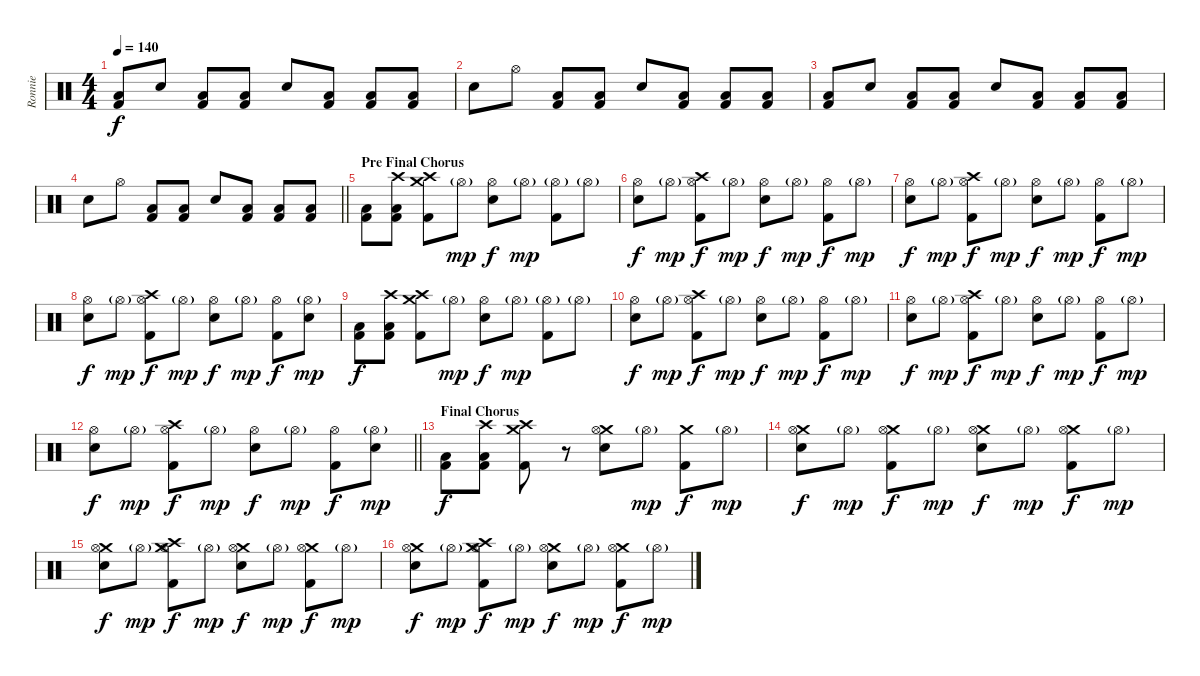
\track ("Ronnie" "Ronnie") {instrument percussion}
\staff {score}
\articulation defaults
\ts (4 4)
\tempo 140
\clef neutral
\ks c
("Low Tom (hit)" "Kick (hit) 2").8{dy f} "Electric Snare (hit)".8 ("Low Tom (hit)" "Kick (hit) 2").8 ("Low Tom (hit)" "Kick (hit) 2").8 "Electric Snare (hit)".8 ("Low Tom (hit)" "Kick (hit) 2").8 ("Low Tom (hit)" "Kick (hit) 2").8 ("Low Tom (hit)" "Kick (hit) 2").8 |
"Electric Snare (hit)".8 "Hi-Hat (open)".8 ("Low Tom (hit)" "Kick (hit) 2").8 ("Low Tom (hit)" "Kick (hit) 2").8 "Electric Snare (hit)".8 ("Low Tom (hit)" "Kick (hit) 2").8 ("Low Tom (hit)" "Kick (hit) 2").8 ("Low Tom (hit)" "Kick (hit) 2").8 |
("Low Tom (hit)" "Kick (hit) 2").8 "Electric Snare (hit)".8 ("Low Tom (hit)" "Kick (hit) 2").8 ("Low Tom (hit)" "Kick (hit) 2").8 "Electric Snare (hit)".8 ("Low Tom (hit)" "Kick (hit) 2").8 ("Low Tom (hit)" "Kick (hit) 2").8 ("Low Tom (hit)" "Kick (hit) 2").8 |
\barLineRight lightlight "Electric Snare (hit)".8 "Hi-Hat (open)".8
("Low Tom (hit)" "Kick (hit) 2").8 ("Low Tom (hit)" "Kick (hit) 2").8 "Electric Snare (hit)".8 ("Low Tom (hit)" "Kick (hit) 2").8 ("Low Tom (hit)" "Kick (hit) 2").8 ("Low Tom (hit)" "Kick (hit) 2").8 |
\section ("" "Pre Final Chorus")
("Low Tom (hit)" "Kick (hit) 2").8 ("Crash high (hit)" "Low Tom (hit)" "Kick (hit) 2").8 ("Crash high (hit)" "Crash medium (hit)" "Kick (hit) 2").8 "Hi-Hat (open)"{g}.8{dy mp} ("Hi-Hat (open)" "Electric Snare (hit)").8{dy f} "Hi-Hat (open)"{g}.8{dy mp} ("Hi-Hat (open)"{g} "Kick (hit) 2").8 "Hi-Hat (open)"{g}.8 |
("Hi-Hat (open)" "Electric Snare (hit)").8{dy f} "Hi-Hat (open)"{g}.8{dy mp} ("Crash high (hit)" "Hi-Hat (open)" "Kick (hit) 2").8{dy f} "Hi-Hat (open)"{g}.8{dy mp} ("Hi-Hat (open)" "Electric Snare (hit)").8{dy f} "Hi-Hat (open)"{g}.8{dy mp} ("Hi-Hat (open)" "Kick (hit) 2").8{dy f} "Hi-Hat (open)"{g}.8{dy mp} |
("Hi-Hat (open)" "Electric Snare (hit)").8{dy f} "Hi-Hat (open)"{g}.8{dy mp} ("Crash high (hit)" "Hi-Hat (open)" "Kick (hit) 2").8{dy f} "Hi-Hat (open)"{g}.8{dy mp} ("Hi-Hat (open)" "Electric Snare (hit)").8{dy f} "Hi-Hat (open)"{g}.8{dy mp} ("Hi-Hat (open)" "Kick (hit) 2").8{dy f} "Hi-Hat (open)"{g}.8{dy mp} |
("Hi-Hat (open)" "Electric Snare (hit)").8{dy f} "Hi-Hat (open)"{g}.8{dy mp} ("Crash high (hit)" "Hi-Hat (open)" "Kick (hit) 2").8{dy f} "Hi-Hat (open)"{g}.8{dy mp} ("Hi-Hat (open)" "Electric Snare (hit)").8{dy f} "Hi-Hat (open)"{g}.8{dy mp} ("Hi-Hat (open)" "Kick (hit) 2").8{dy f} ("Hi-Hat (open)"{g} "Electric Snare (hit)").8{dy mp} |
("Low Tom (hit)" "Kick (hit) 2").8{dy f} ("Crash high (hit)" "Low Tom (hit)" "Kick (hit) 2").8 ("Crash high (hit)" "Crash medium (hit)" "Kick (hit) 2").8 "Hi-Hat (open)"{g}.8{dy mp} ("Hi-Hat (open)" "Electric Snare (hit)").8{dy f} "Hi-Hat (open)"{g}.8{dy mp} ("Hi-Hat (open)"{g} "Kick (hit) 2").8 "Hi-Hat (open)"{g}.8 |
("Hi-Hat (open)" "Electric Snare (hit)").8{dy f} "Hi-Hat (open)"{g}.8{dy mp} ("Crash high (hit)" "Hi-Hat (open)" "Kick (hit) 2").8{dy f} "Hi-Hat (open)"{g}.8{dy mp} ("Hi-Hat (open)" "Electric Snare (hit)").8{dy f} "Hi-Hat (open)"{g}.8{dy mp} ("Hi-Hat (open)" "Kick (hit) 2").8{dy f} "Hi-Hat (open)"{g}.8{dy mp} |
("Hi-Hat (open)" "Electric Snare (hit)").8{dy f} "Hi-Hat (open)"{g}.8{dy mp} ("Crash high (hit)" "Hi-Hat (open)" "Kick (hit) 2").8{dy f} "Hi-Hat (open)"{g}.8{dy mp} ("Hi-Hat (open)" "Electric Snare (hit)").8{dy f} "Hi-Hat (open)"{g}.8{dy mp} ("Hi-Hat (open)" "Kick (hit) 2").8{dy f} "Hi-Hat (open)"{g}.8{dy mp} |
\barLineRight lightlight
("Hi-Hat (open)" "Electric Snare (hit)").8{dy f} "Hi-Hat (open)"{g}.8{dy mp} ("Crash high (hit)" "Hi-Hat (open)" "Kick (hit) 2").8{dy f} "Hi-Hat (open)"{g}.8{dy mp} ("Hi-Hat (open)" "Electric Snare (hit)").8{dy f} "Hi-Hat (open)"{g}.8{dy mp} ("Hi-Hat (open)" "Kick (hit) 2").8{dy f} ("Hi-Hat (open)"{g} "Electric Snare (hit)").8{dy mp} |
\section ("" "Final Chorus")
("Low Tom (hit)" "Kick (hit) 2").8{dy f} ("Crash high (hit)" "Low Tom (hit)" "Kick (hit) 2").8 ("Crash high (hit)" "Crash medium (hit)" "Kick (hit) 2").8 r.8 ("Crash medium (hit)" "Hi-Hat (open)" "Electric Snare (hit)").8 "Hi-Hat (open)"{g}.8{dy mp} ("Crash medium (hit)" "Kick (hit) 2").8{dy f} "Hi-Hat (open)"{g}.8{dy mp} |
("Crash medium (hit)" "Hi-Hat (open)" "Electric Snare (hit)").8{dy f} "Hi-Hat (open)"{g}.8{dy mp} ("Crash medium (hit)" "Hi-Hat (open)" "Kick (hit) 2").8{dy f} "Hi-Hat (open)"{g}.8{dy mp} ("Crash medium (hit)" "Hi-Hat (open)" "Electric Snare (hit)").8{dy f} "Hi-Hat (open)"{g}.8{dy mp} ("Crash medium (hit)" "Hi-Hat (open)" "Kick (hit) 2").8{dy f} "Hi-Hat (open)"{g}.8{dy mp} |
("Crash medium (hit)" "Hi-Hat (open)" "Electric Snare (hit)").8{dy f} "Hi-Hat (open)"{g}.8{dy mp} ("Crash medium (hit)" "Hi-Hat (open)" "Kick (hit) 2" "Crash high (hit)").8{dy f} "Hi-Hat (open)"{g}.8{dy mp} ("Crash medium (hit)" "Hi-Hat (open)" "Electric Snare (hit)").8{dy f} "Hi-Hat (open)"{g}.8{dy mp} ("Crash medium (hit)" "Hi-Hat (open)" "Kick (hit) 2").8{dy f} "Hi-Hat (open)"{g}.8{dy mp} |
("Crash medium (hit)" "Hi-Hat (open)" "Electric Snare (hit)").8{dy f} "Hi-Hat (open)"{g}.8{dy mp} ("Crash medium (hit)" "Hi-Hat (open)" "Kick (hit) 2" "Crash high (hit)").8{dy f} "Hi-Hat (open)"{g}.8{dy mp} ("Crash medium (hit)" "Hi-Hat (open)" "Electric Snare (hit)").8{dy f} "Hi-Hat (open)"{g}.8{dy mp} ("Crash medium (hit)" "Hi-Hat (open)" "Kick (hit) 2").8{dy f} "Hi-Hat (open)"{g}.8{dy mp}
